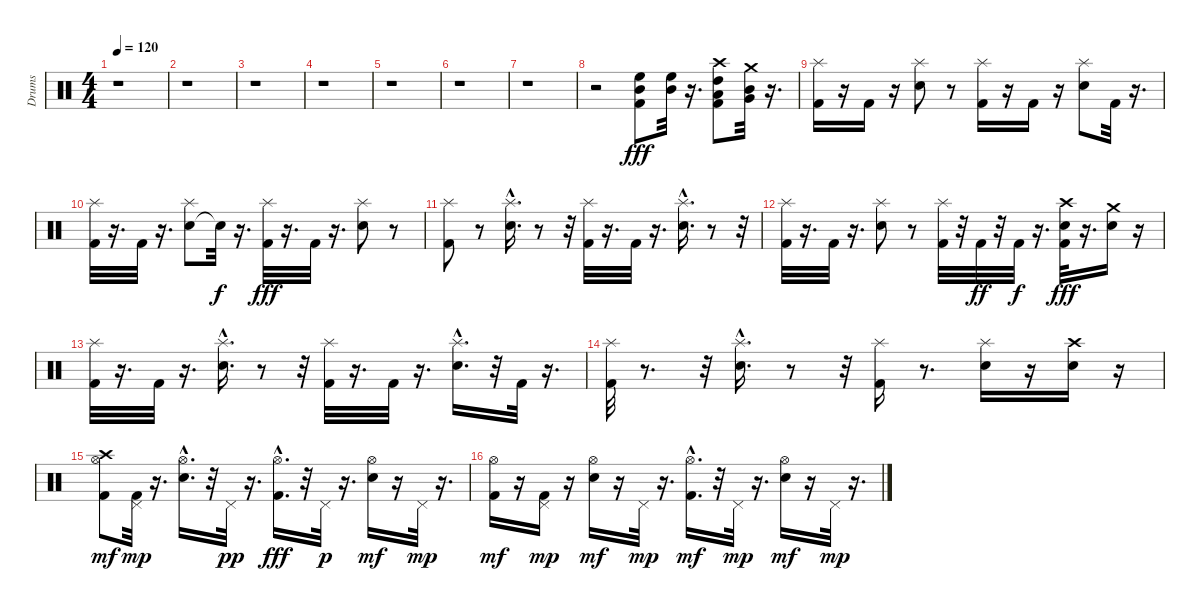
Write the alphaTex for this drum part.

\track ("Drums" "Drums") {instrument percussion}
\staff {score}
\articulation defaults
\ts (4 4)
\tempo 120
\clef neutral
\ks c
r.1{dy fff} |
r.1 |
r.1 |
r.1 |
r.1 |
r.1 |
r.1 |
r.2 ("Mid Tom (hit)" "High Floor Tom (hit)" "Kick (hit) 2").8 ("Mid Tom (hit)" "High Floor Tom (hit)").32 r.16{d} ("Low Tom (hit)" "High Tom (hit)" "Kick (hit) 2" "Crash high (hit)").8 ("Very Low Tom (hit)" "Mid Tom (hit)" "Crash medium (hit)").32 r.16{d} |
("Kick (hit) 2" "Splash (hit)").16 r.16 "Kick (hit) 2".16 r.16 ("Electric Snare (hit)" "Splash (hit)").8 r.8 ("Kick (hit) 2" "Splash (hit)").16 r.16 "Kick (hit) 2".16 r.16 ("Electric Snare (hit)" "Splash (hit)").8 "Kick (hit) 2".32 r.16{d} |
("Kick (hit) 2" "Splash (hit)").32 r.16{d} "Kick (hit) 2".32 r.16{d} ("Electric Snare (hit)" "Splash (hit)").8 "Snare (hit)"{t}.32{dy f} r.16{d} ("Kick (hit) 2" "Splash (hit)").32{dy fff} r.16{d} "Kick (hit) 2".32 r.16{d} ("Electric Snare (hit)" "Splash (hit)").8 r.8 |
("Kick (hit) 2" "Splash (hit)").8 r.8 ("Electric Snare (hit)"{hac} "Splash (hit)").16{d} r.8 r.32 ("Kick (hit) 2" "Splash (hit)").32 r.16{d} "Kick (hit) 2".32 r.16{d} ("Electric Snare (hit)"{hac} "Splash (hit)").16{d} r.8 r.32 |
("Kick (hit) 2" "Splash (hit)").32 r.16{d} "Kick (hit) 2".32 r.16{d} ("Electric Snare (hit)" "Splash (hit)").8 r.8 ("Kick (hit) 2" "Splash (hit)").32 r.32 "Kick (hit) 2".32{dy ff} r.32 "Kick (hit) 2".32{dy f} r.16{d} ("Kick (hit) 2" "Electric Snare (hit)" "Crash high (hit)").32{dy fff} r.16{d} ("Electric Snare (hit)" "Crash medium (hit)").16 r.16 |
("Kick (hit) 2" "Splash (hit)").32 r.16{d} "Kick (hit) 2".32 r.16{d} ("Electric Snare (hit)"{hac} "Splash (hit)").16{d} r.8 r.32 ("Kick (hit) 2" "Splash (hit)").32 r.16{d} "Kick (hit) 2".32 r.16{d} ("Electric Snare (hit)"{hac} "Splash (hit)").16{d} r.32 "Kick (hit) 2".32 r.16{d} |
("Kick (hit) 2" "Splash (hit)").32 r.8{d} r.32 ("Electric Snare (hit)"{hac} "Splash (hit)").16{d} r.8 r.32 ("Kick (hit) 2" "Splash (hit)").16 r.8{d} ("Electric Snare (hit)" "Splash (hit)").16 r.16 ("Electric Snare (hit)" "Crash high (hit)").16 r.16 |
("Kick (hit) 2" "Crash high (hit)" "Hi-Hat (open)").8{dy mf} ("Kick (hit) 2" "Pedal Hi-Hat (hit)").32{dy mp} r.16{d} ("Electric Snare (hit)"{hac} "Hi-Hat (open)").16{d} r.32 "Pedal Hi-Hat (hit)".32{dy pp} r.16{d} ("Kick (hit) 2"{hac} "Hi-Hat (open)").16{d dy fff} r.32 "Pedal Hi-Hat (hit)".32{dy p} r.16{d} ("Electric Snare (hit)" "Hi-Hat (open)").16{dy mf} r.16 "Pedal Hi-Hat (hit)".32{dy mp} r.16{d} |
("Kick (hit) 2" "Hi-Hat (open)").16{dy mf} r.16 ("Kick (hit) 2" "Pedal Hi-Hat (hit)").16{dy mp} r.16 ("Electric Snare (hit)" "Hi-Hat (open)").16{dy mf} r.16 "Pedal Hi-Hat (hit)".32{dy mp} r.16{d} ("Kick (hit) 2"{hac} "Hi-Hat (open)").16{d dy mf} r.32 "Pedal Hi-Hat (hit)".32{dy mp} r.16{d} ("Electric Snare (hit)" "Hi-Hat (open)").16{dy mf} r.16 "Pedal Hi-Hat (hit)".32{dy mp} r.16{d}
